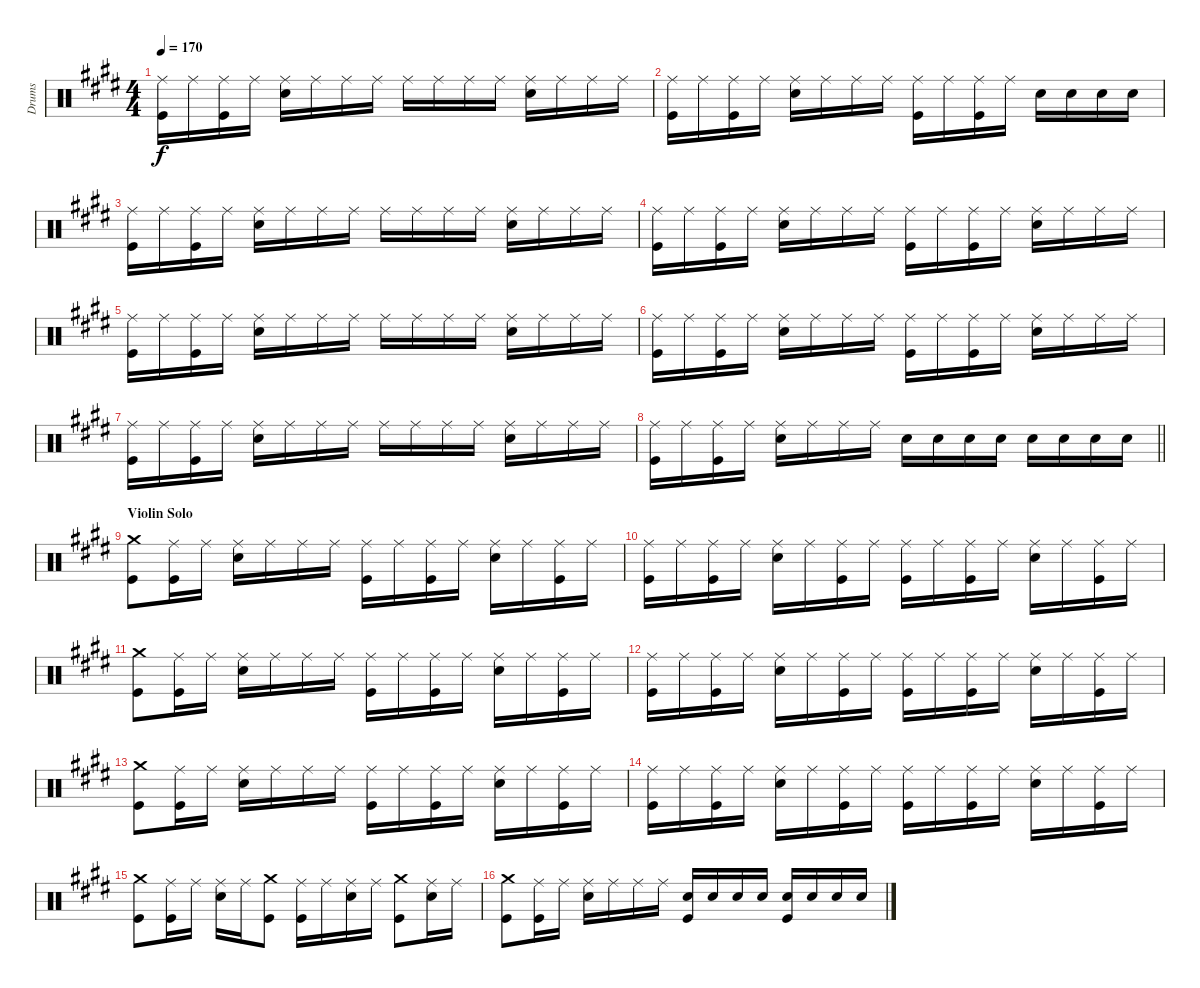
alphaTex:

\track ("Drums" "Drums") {instrument percussion}
\staff {score}
\articulation defaults
\ts (4 4)
\tempo 170
\clef neutral
\ks e
("Ride (middle)" "Kick (hit)").16{dy f} "Ride (middle)".16 ("Ride (middle)" "Kick (hit)").16 "Ride (middle)".16 ("Ride (middle)" "Snare (hit) 2").16 "Ride (middle)".16 "Ride (middle)".16 "Ride (middle)".16 "Ride (middle)".16 "Ride (middle)".16 "Ride (middle)".16 "Ride (middle)".16 ("Ride (middle)" "Snare (hit) 2").16 "Ride (middle)".16 "Ride (middle)".16 "Ride (middle)".16 |
("Ride (middle)" "Kick (hit)").16 "Ride (middle)".16 ("Ride (middle)" "Kick (hit)").16 "Ride (middle)".16 ("Ride (middle)" "Snare (hit) 2").16 "Ride (middle)".16 "Ride (middle)".16 "Ride (middle)".16 ("Ride (middle)" "Kick (hit)").16 "Ride (middle)".16 ("Ride (middle)" "Kick (hit)").16 "Ride (middle)".16 "Snare (hit) 2".16 "Snare (hit) 2".16 "Snare (hit) 2".16 "Snare (hit) 2".16 |
("Ride (middle)" "Kick (hit)").16 "Ride (middle)".16 ("Ride (middle)" "Kick (hit)").16 "Ride (middle)".16 ("Ride (middle)" "Snare (hit) 2").16 "Ride (middle)".16 "Ride (middle)".16 "Ride (middle)".16 "Ride (middle)".16 "Ride (middle)".16 "Ride (middle)".16 "Ride (middle)".16 ("Ride (middle)" "Snare (hit) 2").16 "Ride (middle)".16 "Ride (middle)".16 "Ride (middle)".16 |
("Ride (middle)" "Kick (hit)").16 "Ride (middle)".16 ("Ride (middle)" "Kick (hit)").16 "Ride (middle)".16 ("Ride (middle)" "Snare (hit) 2").16 "Ride (middle)".16 "Ride (middle)".16 "Ride (middle)".16 ("Ride (middle)" "Kick (hit)").16 "Ride (middle)".16 ("Ride (middle)" "Kick (hit)").16 "Ride (middle)".16 ("Ride (middle)" "Snare (hit) 2").16 "Ride (middle)".16 "Ride (middle)".16 "Ride (middle)".16 |
("Ride (middle)" "Kick (hit)").16 "Ride (middle)".16 ("Ride (middle)" "Kick (hit)").16 "Ride (middle)".16 ("Ride (middle)" "Snare (hit) 2").16 "Ride (middle)".16 "Ride (middle)".16 "Ride (middle)".16 "Ride (middle)".16 "Ride (middle)".16 "Ride (middle)".16 "Ride (middle)".16 ("Ride (middle)" "Snare (hit) 2").16 "Ride (middle)".16 "Ride (middle)".16 "Ride (middle)".16 |
("Ride (middle)" "Kick (hit)").16 "Ride (middle)".16 ("Ride (middle)" "Kick (hit)").16 "Ride (middle)".16 ("Ride (middle)" "Snare (hit) 2").16 "Ride (middle)".16 "Ride (middle)".16 "Ride (middle)".16 ("Ride (middle)" "Kick (hit)").16 "Ride (middle)".16 ("Ride (middle)" "Kick (hit)").16 "Ride (middle)".16 ("Ride (middle)" "Snare (hit) 2").16 "Ride (middle)".16 "Ride (middle)".16 "Ride (middle)".16 |
("Ride (middle)" "Kick (hit)").16 "Ride (middle)".16 ("Ride (middle)" "Kick (hit)").16 "Ride (middle)".16 ("Ride (middle)" "Snare (hit) 2").16 "Ride (middle)".16 "Ride (middle)".16 "Ride (middle)".16 "Ride (middle)".16 "Ride (middle)".16 "Ride (middle)".16 "Ride (middle)".16 ("Ride (middle)" "Snare (hit) 2").16 "Ride (middle)".16 "Ride (middle)".16 "Ride (middle)".16 |
\barLineRight lightlight
("Ride (middle)" "Kick (hit)").16 "Ride (middle)".16 ("Ride (middle)" "Kick (hit)").16 "Ride (middle)".16 ("Ride (middle)" "Snare (hit) 2").16 "Ride (middle)".16 "Ride (middle)".16 "Ride (middle)".16 "Snare (hit) 2".16 "Snare (hit) 2".16 "Snare (hit) 2".16 "Snare (hit) 2".16 "Snare (hit) 2".16 "Snare (hit) 2".16 "Snare (hit) 2".16 "Snare (hit) 2".16 |
\section ("" "Violin Solo")
("Kick (hit)" "Crash medium (hit)").8 ("Ride (middle)" "Kick (hit)").16 "Ride (middle)".16 ("Ride (middle)" "Snare (hit) 2").16 "Ride (middle)".16 "Ride (middle)".16 "Ride (middle)".16 ("Ride (middle)" "Kick (hit)").16 "Ride (middle)".16 ("Ride (middle)" "Kick (hit)").16 "Ride (middle)".16 ("Ride (middle)" "Snare (hit) 2").16 "Ride (middle)".16 ("Ride (middle)" "Kick (hit)").16 "Ride (middle)".16 |
("Ride (middle)" "Kick (hit)").16 "Ride (middle)".16 ("Ride (middle)" "Kick (hit)").16 "Ride (middle)".16 ("Ride (middle)" "Snare (hit) 2").16 "Ride (middle)".16 ("Ride (middle)" "Kick (hit)").16 "Ride (middle)".16 ("Ride (middle)" "Kick (hit)").16 "Ride (middle)".16 ("Ride (middle)" "Kick (hit)").16 "Ride (middle)".16 ("Ride (middle)" "Snare (hit) 2").16 "Ride (middle)".16 ("Ride (middle)" "Kick (hit)").16 "Ride (middle)".16 |
("Kick (hit)" "Crash medium (hit)").8 ("Ride (middle)" "Kick (hit)").16 "Ride (middle)".16 ("Ride (middle)" "Snare (hit) 2").16 "Ride (middle)".16 "Ride (middle)".16 "Ride (middle)".16 ("Ride (middle)" "Kick (hit)").16 "Ride (middle)".16 ("Ride (middle)" "Kick (hit)").16 "Ride (middle)".16 ("Ride (middle)" "Snare (hit) 2").16 "Ride (middle)".16 ("Ride (middle)" "Kick (hit)").16 "Ride (middle)".16 |
("Ride (middle)" "Kick (hit)").16 "Ride (middle)".16 ("Ride (middle)" "Kick (hit)").16 "Ride (middle)".16 ("Ride (middle)" "Snare (hit) 2").16 "Ride (middle)".16 ("Ride (middle)" "Kick (hit)").16 "Ride (middle)".16 ("Ride (middle)" "Kick (hit)").16 "Ride (middle)".16 ("Ride (middle)" "Kick (hit)").16 "Ride (middle)".16 ("Ride (middle)" "Snare (hit) 2").16 "Ride (middle)".16 ("Ride (middle)" "Kick (hit)").16 "Ride (middle)".16 |
("Kick (hit)" "Crash medium (hit)").8 ("Ride (middle)" "Kick (hit)").16 "Ride (middle)".16 ("Ride (middle)" "Snare (hit) 2").16 "Ride (middle)".16 "Ride (middle)".16 "Ride (middle)".16 ("Ride (middle)" "Kick (hit)").16 "Ride (middle)".16 ("Ride (middle)" "Kick (hit)").16 "Ride (middle)".16 ("Ride (middle)" "Snare (hit) 2").16 "Ride (middle)".16 ("Ride (middle)" "Kick (hit)").16 "Ride (middle)".16 |
("Ride (middle)" "Kick (hit)").16 "Ride (middle)".16 ("Ride (middle)" "Kick (hit)").16 "Ride (middle)".16 ("Ride (middle)" "Snare (hit) 2").16 "Ride (middle)".16 ("Ride (middle)" "Kick (hit)").16 "Ride (middle)".16 ("Ride (middle)" "Kick (hit)").16 "Ride (middle)".16 ("Ride (middle)" "Kick (hit)").16 "Ride (middle)".16 ("Ride (middle)" "Snare (hit) 2").16 "Ride (middle)".16 ("Ride (middle)" "Kick (hit)").16 "Ride (middle)".16 |
("Kick (hit)" "Crash medium (hit)").8 ("Ride (middle)" "Kick (hit)").16 "Ride (middle)".16 ("Ride (middle)" "Snare (hit) 2").16 "Ride (middle)".16 ("Kick (hit)" "Crash medium (hit)").8 ("Ride (middle)" "Kick (hit)").16 "Ride (middle)".16 ("Ride (middle)" "Snare (hit) 2").16 "Ride (middle)".16 ("Kick (hit)" "Crash medium (hit)").8 ("Ride (middle)" "Snare (hit) 2").16 "Ride (middle)".16 |
("Kick (hit)" "Crash medium (hit)").8 ("Ride (middle)" "Kick (hit)").16 "Ride (middle)".16 ("Ride (middle)" "Snare (hit) 2").16 "Ride (middle)".16 "Ride (middle)".16 "Ride (middle)".16 ("Snare (hit) 2" "Kick (hit)").16 "Snare (hit) 2".16 "Snare (hit) 2".16 "Snare (hit) 2".16 ("Snare (hit) 2" "Kick (hit)").16 "Snare (hit) 2".16 "Snare (hit) 2".16 "Snare (hit) 2".16
